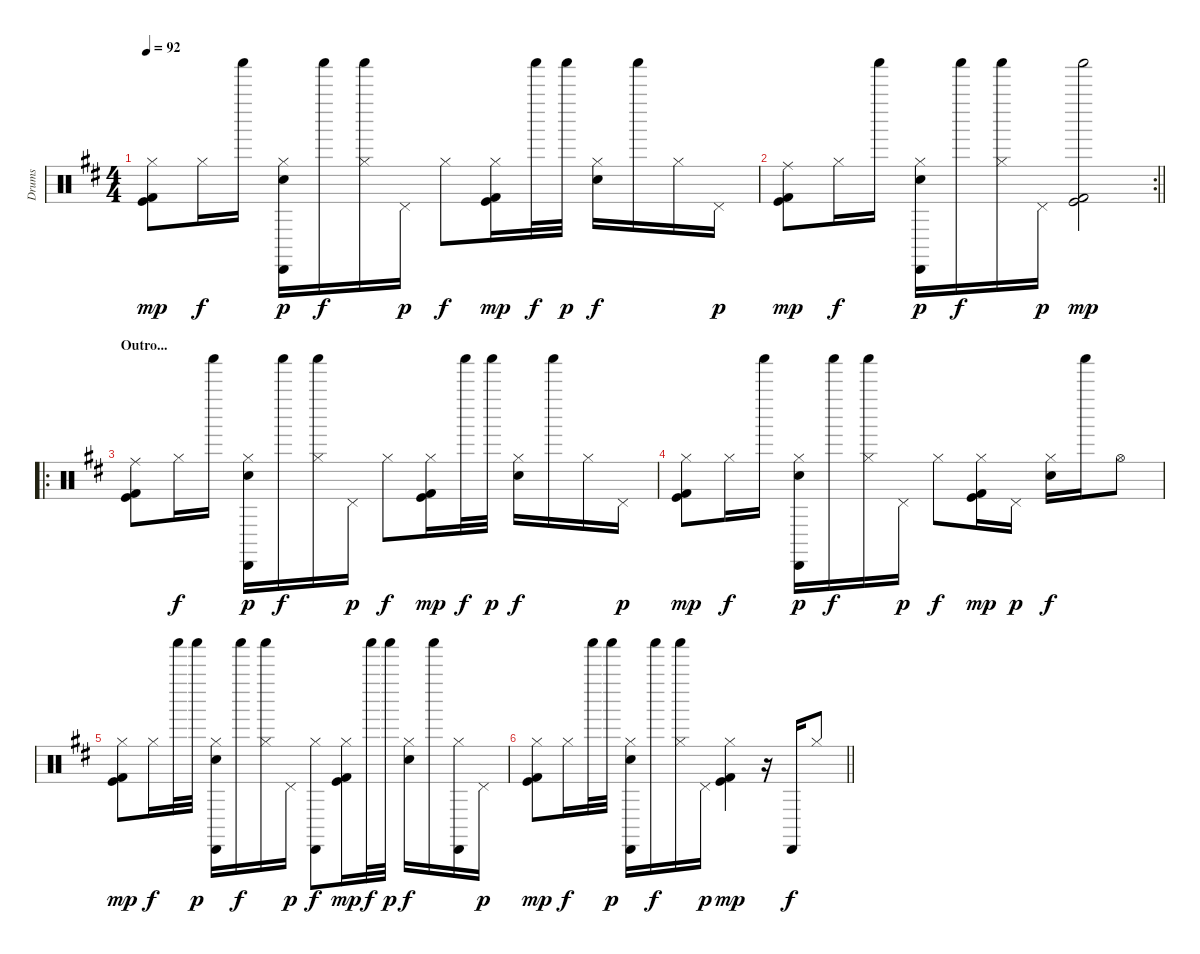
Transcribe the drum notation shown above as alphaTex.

\track ("Drums" "Drums") {instrument percussion}
\staff {score}
\articulation defaults
\ts (4 4)
\tempo 92
\clef neutral
\ks d
("Hi-Hat (closed)" "Kick (hit) 2" "Kick (hit)").8{dy mp} "Hi-Hat (closed)".16{dy f} "Shaker (hit)".16 ("Cabasa (hit)" "Hi-Hat (closed)" "Snare (hit) 2").16{dy p} "Shaker (hit)".16{dy f} ("Shaker (hit)" "Hi-Hat (closed)").16 "Pedal Hi-Hat (hit)".16{dy p} "Hi-Hat (closed)".8{dy f} ("Hi-Hat (closed)" "Kick (hit) 2" "Kick (hit)").16{dy mp} "Shaker (hit)".32{dy f} "Shaker (hit)".32{dy p} ("Hi-Hat (closed)" "Snare (hit) 2").16{dy f} "Shaker (hit)".16 "Hi-Hat (closed)".16 "Pedal Hi-Hat (hit)".16{dy p} |
\rc 2
\barLineRight lightlight
("Ride (middle)" "Kick (hit) 2" "Kick (hit)").8{dy mp} "Hi-Hat (closed)".16{dy f} "Shaker (hit)".16 ("Cabasa (hit)" "Hi-Hat (closed)" "Snare (hit) 2").16{dy p} "Shaker (hit)".16{dy f} ("Shaker (hit)" "Hi-Hat (closed)").16 "Pedal Hi-Hat (hit)".16{dy p} ("Shaker (hit)" "Kick (hit) 2" "Kick (hit)").2{dy mp} |
\ro
\section ("" "Outro...")
("Ride (middle)" "Kick (hit) 2" "Kick (hit)").8 "Hi-Hat (closed)".16{dy f} "Shaker (hit)".16 ("Cabasa (hit)" "Hi-Hat (closed)" "Snare (hit) 2").16{dy p} "Shaker (hit)".16{dy f} ("Shaker (hit)" "Hi-Hat (closed)").16 "Pedal Hi-Hat (hit)".16{dy p} "Hi-Hat (closed)".8{dy f} ("Hi-Hat (closed)" "Kick (hit) 2" "Kick (hit)").16{dy mp} "Shaker (hit)".32{dy f} "Shaker (hit)".32{dy p} ("Hi-Hat (closed)" "Snare (hit) 2").16{dy f} "Shaker (hit)".16 "Hi-Hat (closed)".16 "Pedal Hi-Hat (hit)".16{dy p} |
("Hi-Hat (closed)" "Kick (hit) 2" "Kick (hit)").8{dy mp} "Hi-Hat (closed)".16{dy f} "Shaker (hit)".16 ("Cabasa (hit)" "Hi-Hat (closed)" "Snare (hit) 2").16{dy p} "Shaker (hit)".16{dy f} ("Shaker (hit)" "Hi-Hat (closed)").16 "Pedal Hi-Hat (hit)".16{dy p} "Hi-Hat (closed)".8{dy f} ("Hi-Hat (closed)" "Kick (hit) 2" "Kick (hit)").16{dy mp} "Pedal Hi-Hat (hit)".16{dy p} ("Hi-Hat (closed)" "Snare (hit) 2").16{dy f} "Shaker (hit)".16 "Hi-Hat (open)".8 |
("Hi-Hat (closed)" "Kick (hit) 2" "Kick (hit)").8{dy mp} "Hi-Hat (closed)".16{dy f} "Shaker (hit)".32 "Shaker (hit)".32{dy p} ("Cabasa (hit)" "Hi-Hat (closed)" "Snare (hit) 2").16 "Shaker (hit)".16{dy f} ("Shaker (hit)" "Hi-Hat (closed)").16 "Pedal Hi-Hat (hit)".16{dy p} ("Cabasa (hit)" "Hi-Hat (closed)").8{dy f} ("Hi-Hat (closed)" "Kick (hit) 2" "Kick (hit)").16{dy mp} "Shaker (hit)".32{dy f} "Shaker (hit)".32{dy p} ("Hi-Hat (closed)" "Snare (hit) 2").16{dy f} "Shaker (hit)".16 ("Cabasa (hit)" "Hi-Hat (closed)").16 "Pedal Hi-Hat (hit)".16{dy p} |
\barLineRight lightlight
("Hi-Hat (closed)" "Kick (hit) 2" "Kick (hit)").8{dy mp} "Hi-Hat (closed)".16{dy f} "Shaker (hit)".32 "Shaker (hit)".32{dy p} ("Cabasa (hit)" "Hi-Hat (closed)" "Snare (hit) 2").16 "Shaker (hit)".16{dy f} ("Shaker (hit)" "Hi-Hat (closed)").16 "Pedal Hi-Hat (hit)".16{dy p} ("Hi-Hat (closed)" "Kick (hit) 2" "Kick (hit)").4{dy mp} r.16 "Cabasa (hit)".16{dy f} "Hi-Hat (closed)".8
